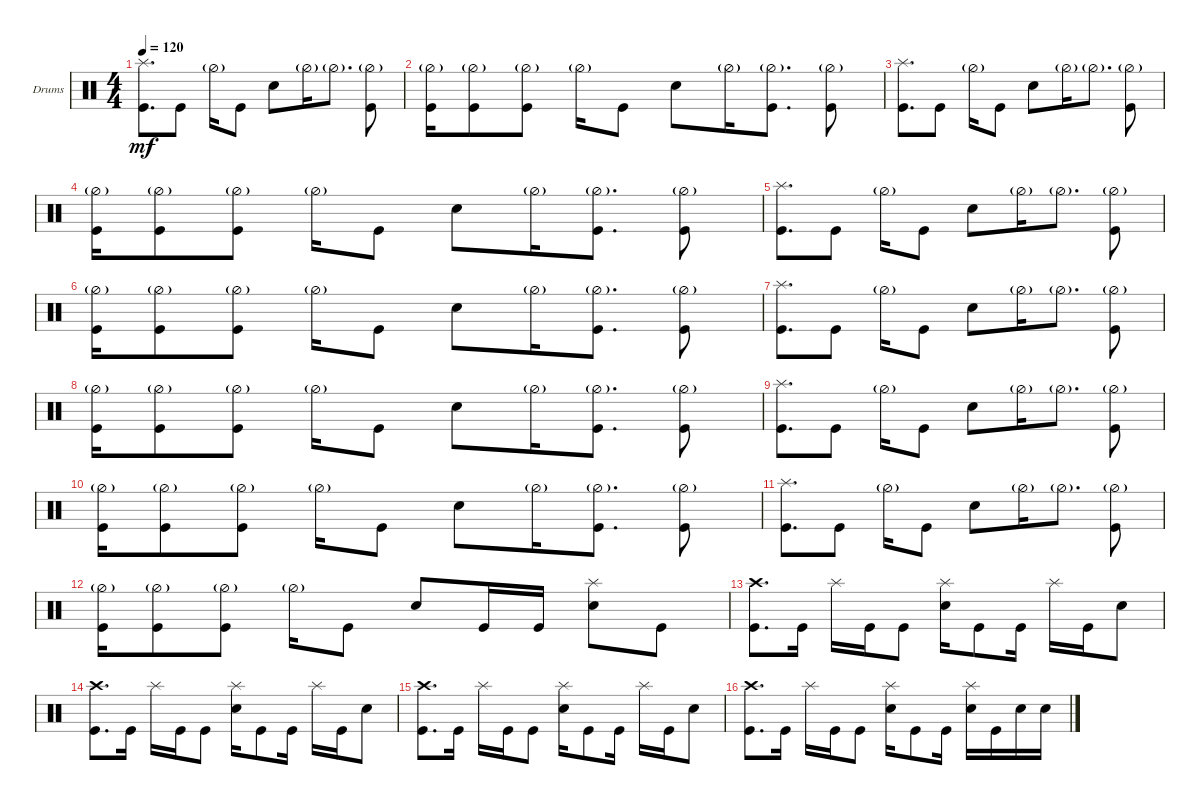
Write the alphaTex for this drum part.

\defaultSystemsLayout 4
\bracketExtendMode groupsimilarinstruments
\firstSystemTrackNameOrientation horizontal
\otherSystemsTrackNameOrientation horizontal
\track ("Kai" "Drums") {instrument percussion}
\staff {score}
\articulation defaults
\ts (4 4)
\tempo 120
\clef neutral
\ks c
("Kick (hit)" "Splash (hit)").8{d dy mf} "Kick (hit)".8 "Hi-Hat (half)"{g}.16 "Kick (hit)".8 "Snare (hit) 2".8 "Hi-Hat (half)"{g}.16 "Hi-Hat (half)"{g}.8{d} ("Kick (hit)" "Hi-Hat (half)"{g}).8 |
("Kick (hit)" "Hi-Hat (half)"{g}).16 ("Kick (hit)" "Hi-Hat (half)"{g}).8 ("Kick (hit)" "Hi-Hat (half)"{g}).8 "Hi-Hat (half)"{g}.16 "Kick (hit)".8 "Snare (hit) 2".8 "Hi-Hat (half)"{g}.16 ("Hi-Hat (half)"{g} "Kick (hit)").8{d} ("Kick (hit)" "Hi-Hat (half)"{g}).8 |
("Kick (hit)" "Splash (hit)").8{d} "Kick (hit)".8 "Hi-Hat (half)"{g}.16 "Kick (hit)".8 "Snare (hit) 2".8 "Hi-Hat (half)"{g}.16 "Hi-Hat (half)"{g}.8{d} ("Kick (hit)" "Hi-Hat (half)"{g}).8 |
("Kick (hit)" "Hi-Hat (half)"{g}).16 ("Kick (hit)" "Hi-Hat (half)"{g}).8 ("Kick (hit)" "Hi-Hat (half)"{g}).8 "Hi-Hat (half)"{g}.16 "Kick (hit)".8 "Snare (hit) 2".8 "Hi-Hat (half)"{g}.16 ("Hi-Hat (half)"{g} "Kick (hit)").8{d} ("Kick (hit)" "Hi-Hat (half)"{g}).8 |
("Kick (hit)" "Splash (hit)").8{d} "Kick (hit)".8 "Hi-Hat (half)"{g}.16 "Kick (hit)".8 "Snare (hit) 2".8 "Hi-Hat (half)"{g}.16 "Hi-Hat (half)"{g}.8{d} ("Kick (hit)" "Hi-Hat (half)"{g}).8 |
("Kick (hit)" "Hi-Hat (half)"{g}).16 ("Kick (hit)" "Hi-Hat (half)"{g}).8 ("Kick (hit)" "Hi-Hat (half)"{g}).8 "Hi-Hat (half)"{g}.16 "Kick (hit)".8 "Snare (hit) 2".8 "Hi-Hat (half)"{g}.16 ("Hi-Hat (half)"{g} "Kick (hit)").8{d} ("Kick (hit)" "Hi-Hat (half)"{g}).8 |
("Kick (hit)" "Splash (hit)").8{d} "Kick (hit)".8 "Hi-Hat (half)"{g}.16 "Kick (hit)".8 "Snare (hit) 2".8 "Hi-Hat (half)"{g}.16 "Hi-Hat (half)"{g}.8{d} ("Kick (hit)" "Hi-Hat (half)"{g}).8 |
("Kick (hit)" "Hi-Hat (half)"{g}).16 ("Kick (hit)" "Hi-Hat (half)"{g}).8 ("Kick (hit)" "Hi-Hat (half)"{g}).8 "Hi-Hat (half)"{g}.16 "Kick (hit)".8 "Snare (hit) 2".8 "Hi-Hat (half)"{g}.16 ("Hi-Hat (half)"{g} "Kick (hit)").8{d} ("Kick (hit)" "Hi-Hat (half)"{g}).8 |
("Kick (hit)" "Splash (hit)").8{d} "Kick (hit)".8 "Hi-Hat (half)"{g}.16 "Kick (hit)".8 "Snare (hit) 2".8 "Hi-Hat (half)"{g}.16 "Hi-Hat (half)"{g}.8{d} ("Kick (hit)" "Hi-Hat (half)"{g}).8 |
("Kick (hit)" "Hi-Hat (half)"{g}).16 ("Kick (hit)" "Hi-Hat (half)"{g}).8 ("Kick (hit)" "Hi-Hat (half)"{g}).8 "Hi-Hat (half)"{g}.16 "Kick (hit)".8 "Snare (hit) 2".8 "Hi-Hat (half)"{g}.16 ("Hi-Hat (half)"{g} "Kick (hit)").8{d} ("Kick (hit)" "Hi-Hat (half)"{g}).8 |
("Kick (hit)" "Splash (hit)").8{d} "Kick (hit)".8 "Hi-Hat (half)"{g}.16 "Kick (hit)".8 "Snare (hit) 2".8 "Hi-Hat (half)"{g}.16 "Hi-Hat (half)"{g}.8{d} ("Kick (hit)" "Hi-Hat (half)"{g}).8 |
("Kick (hit)" "Hi-Hat (half)"{g}).16 ("Kick (hit)" "Hi-Hat (half)"{g}).8 ("Kick (hit)" "Hi-Hat (half)"{g}).8 "Hi-Hat (half)"{g}.16 "Kick (hit)".8 "Snare (hit) 2".8 "Kick (hit)".16 "Kick (hit)".16 ("Snare (hit) 2" "Splash (hit)").8 "Kick (hit)".8 |
("Crash high (hit)" "Kick (hit)").8{d} "Kick (hit)".16 "Splash (hit)".16 "Kick (hit)".16 "Kick (hit)".8 ("Snare (hit) 2" "Splash (hit)").16 "Kick (hit)".8 "Kick (hit)".16 "Splash (hit)".16 "Kick (hit)".16 "Snare (hit) 2".8 |
("Crash high (hit)" "Kick (hit)").8{d} "Kick (hit)".16 "Splash (hit)".16 "Kick (hit)".16 "Kick (hit)".8 ("Snare (hit) 2" "Splash (hit)").16 "Kick (hit)".8 "Kick (hit)".16 "Splash (hit)".16 "Kick (hit)".16 "Snare (hit) 2".8 |
("Crash high (hit)" "Kick (hit)").8{d} "Kick (hit)".16 "Splash (hit)".16 "Kick (hit)".16 "Kick (hit)".8 ("Snare (hit) 2" "Splash (hit)").16 "Kick (hit)".8 "Kick (hit)".16 "Splash (hit)".16 "Kick (hit)".16 "Snare (hit) 2".8 |
("Crash high (hit)" "Kick (hit)").8{d} "Kick (hit)".16 "Splash (hit)".16 "Kick (hit)".16 "Kick (hit)".8 ("Snare (hit) 2" "Splash (hit)").16 "Kick (hit)".8 "Kick (hit)".16 ("Splash (hit)" "Snare (hit) 2").16 "Kick (hit)".16 "Snare (hit) 2".16 "Snare (hit) 2".16
